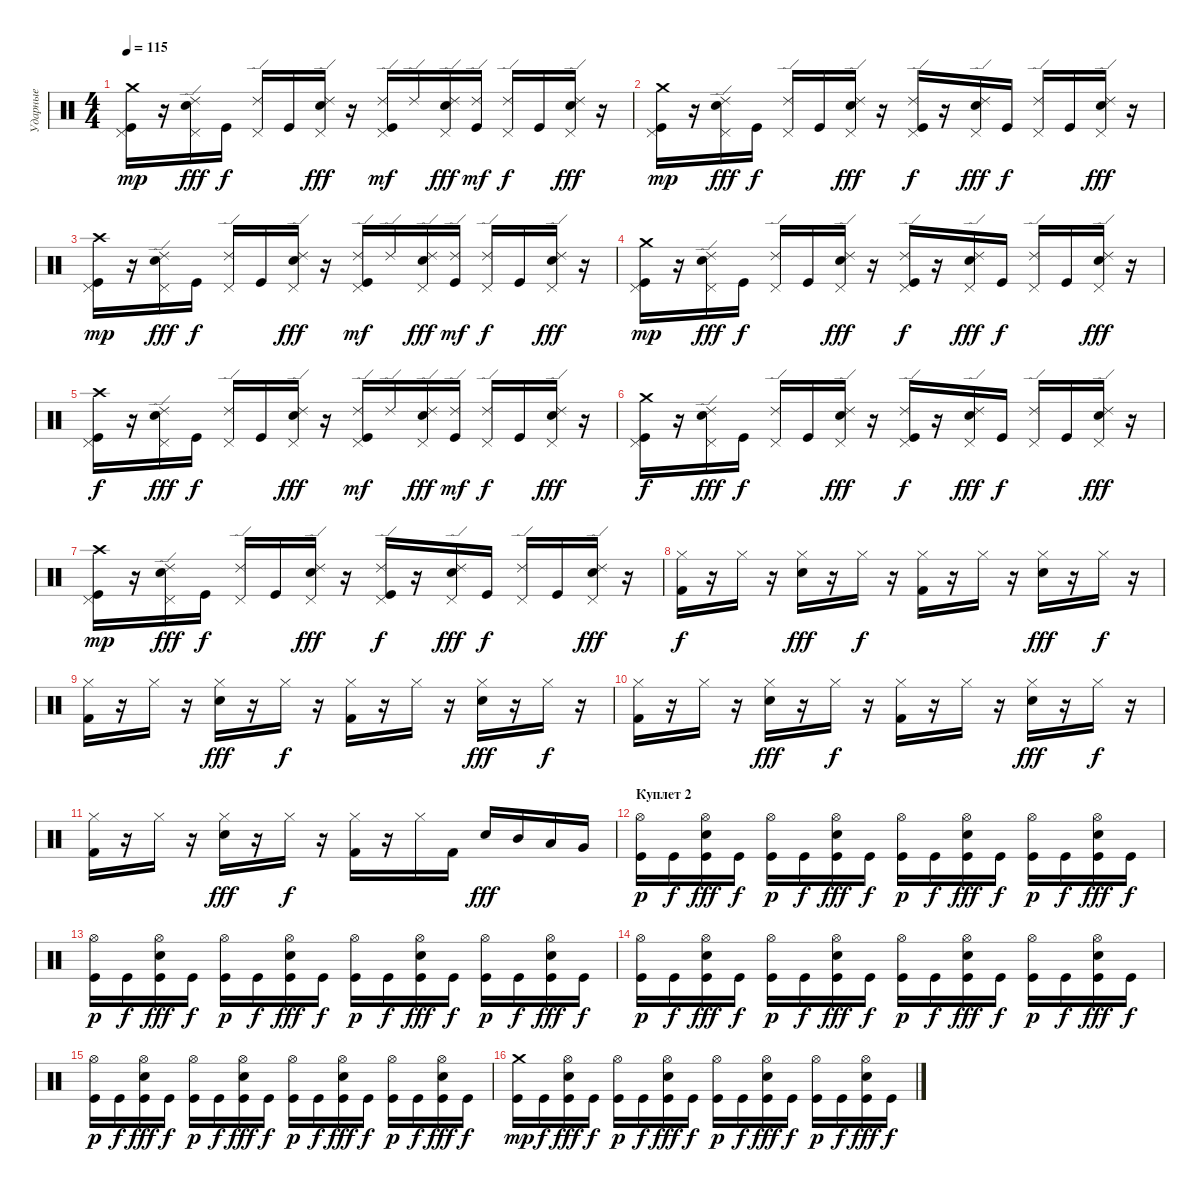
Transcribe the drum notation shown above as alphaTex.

\track ("Ударные" "Ударные") {instrument percussion}
\staff {score}
\articulation defaults
\ts (4 4)
\tempo 115
\clef neutral
\ks c
("Crash medium (hit)" "Pedal Hi-Hat (hit)" "Kick (hit)").16{dy mp} r.16 ("Ride (edge) 2" "Pedal Hi-Hat (hit)" "Electric Snare (hit)").16{dy fff} "Kick (hit)".16{dy f} ("Ride (edge) 2" "Pedal Hi-Hat (hit)").16 "Kick (hit)".16 ("Ride (edge) 2" "Pedal Hi-Hat (hit)" "Electric Snare (hit)").16{dy fff} r.16 ("Ride (edge) 2" "Pedal Hi-Hat (hit)" "Kick (hit)").16{dy mf} "Ride (edge) 2".16 ("Ride (edge) 2" "Pedal Hi-Hat (hit)" "Electric Snare (hit)").16{dy fff} ("Ride (edge) 2" "Kick (hit)").16{dy mf} ("Ride (edge) 2" "Pedal Hi-Hat (hit)").16{dy f} "Kick (hit)".16 ("Ride (edge) 2" "Pedal Hi-Hat (hit)" "Electric Snare (hit)").16{dy fff} r.16 |
("Crash medium (hit)" "Pedal Hi-Hat (hit)" "Kick (hit)").16{dy mp} r.16 ("Ride (edge) 2" "Pedal Hi-Hat (hit)" "Electric Snare (hit)").16{dy fff} "Kick (hit)".16{dy f} ("Ride (edge) 2" "Pedal Hi-Hat (hit)").16 "Kick (hit)".16 ("Ride (edge) 2" "Pedal Hi-Hat (hit)" "Electric Snare (hit)").16{dy fff} r.16 ("Ride (edge) 2" "Pedal Hi-Hat (hit)" "Kick (hit)").16{dy f} r.16 ("Ride (edge) 2" "Pedal Hi-Hat (hit)" "Electric Snare (hit)").16{dy fff} "Kick (hit)".16{dy f} ("Ride (edge) 2" "Pedal Hi-Hat (hit)").16 "Kick (hit)".16 ("Ride (edge) 2" "Pedal Hi-Hat (hit)" "Electric Snare (hit)").16{dy fff} r.16 |
("Crash high (hit)" "Pedal Hi-Hat (hit)" "Kick (hit)").16{dy mp} r.16 ("Ride (edge) 2" "Pedal Hi-Hat (hit)" "Electric Snare (hit)").16{dy fff} "Kick (hit)".16{dy f} ("Ride (edge) 2" "Pedal Hi-Hat (hit)").16 "Kick (hit)".16 ("Ride (edge) 2" "Pedal Hi-Hat (hit)" "Electric Snare (hit)").16{dy fff} r.16 ("Ride (edge) 2" "Pedal Hi-Hat (hit)" "Kick (hit)").16{dy mf} "Ride (edge) 2".16 ("Ride (edge) 2" "Pedal Hi-Hat (hit)" "Electric Snare (hit)").16{dy fff} ("Ride (edge) 2" "Kick (hit)").16{dy mf} ("Ride (edge) 2" "Pedal Hi-Hat (hit)").16{dy f} "Kick (hit)".16 ("Ride (edge) 2" "Pedal Hi-Hat (hit)" "Electric Snare (hit)").16{dy fff} r.16 |
("Crash medium (hit)" "Pedal Hi-Hat (hit)" "Kick (hit)").16{dy mp} r.16 ("Ride (edge) 2" "Pedal Hi-Hat (hit)" "Electric Snare (hit)").16{dy fff} "Kick (hit)".16{dy f} ("Ride (edge) 2" "Pedal Hi-Hat (hit)").16 "Kick (hit)".16 ("Ride (edge) 2" "Pedal Hi-Hat (hit)" "Electric Snare (hit)").16{dy fff} r.16 ("Ride (edge) 2" "Pedal Hi-Hat (hit)" "Kick (hit)").16{dy f} r.16 ("Ride (edge) 2" "Pedal Hi-Hat (hit)" "Electric Snare (hit)").16{dy fff} "Kick (hit)".16{dy f} ("Ride (edge) 2" "Pedal Hi-Hat (hit)").16 "Kick (hit)".16 ("Ride (edge) 2" "Pedal Hi-Hat (hit)" "Electric Snare (hit)").16{dy fff} r.16 |
("Crash high (hit)" "Pedal Hi-Hat (hit)" "Kick (hit)").16{dy f} r.16 ("Ride (edge) 2" "Pedal Hi-Hat (hit)" "Electric Snare (hit)").16{dy fff} "Kick (hit)".16{dy f} ("Ride (edge) 2" "Pedal Hi-Hat (hit)").16 "Kick (hit)".16 ("Ride (edge) 2" "Pedal Hi-Hat (hit)" "Electric Snare (hit)").16{dy fff} r.16 ("Ride (edge) 2" "Pedal Hi-Hat (hit)" "Kick (hit)").16{dy mf} "Ride (edge) 2".16 ("Ride (edge) 2" "Pedal Hi-Hat (hit)" "Electric Snare (hit)").16{dy fff} ("Ride (edge) 2" "Kick (hit)").16{dy mf} ("Ride (edge) 2" "Pedal Hi-Hat (hit)").16{dy f} "Kick (hit)".16 ("Ride (edge) 2" "Pedal Hi-Hat (hit)" "Electric Snare (hit)").16{dy fff} r.16 |
("Crash medium (hit)" "Pedal Hi-Hat (hit)" "Kick (hit)").16{dy f} r.16 ("Ride (edge) 2" "Pedal Hi-Hat (hit)" "Electric Snare (hit)").16{dy fff} "Kick (hit)".16{dy f} ("Ride (edge) 2" "Pedal Hi-Hat (hit)").16 "Kick (hit)".16 ("Ride (edge) 2" "Pedal Hi-Hat (hit)" "Electric Snare (hit)").16{dy fff} r.16 ("Ride (edge) 2" "Pedal Hi-Hat (hit)" "Kick (hit)").16{dy f} r.16 ("Ride (edge) 2" "Pedal Hi-Hat (hit)" "Electric Snare (hit)").16{dy fff} "Kick (hit)".16{dy f} ("Ride (edge) 2" "Pedal Hi-Hat (hit)").16 "Kick (hit)".16 ("Ride (edge) 2" "Pedal Hi-Hat (hit)" "Electric Snare (hit)").16{dy fff} r.16 |
("Crash high (hit)" "Pedal Hi-Hat (hit)" "Kick (hit)").16{dy mp} r.16 ("Ride (edge) 2" "Pedal Hi-Hat (hit)" "Electric Snare (hit)").16{dy fff} "Kick (hit)".16{dy f} ("Ride (edge) 2" "Pedal Hi-Hat (hit)").16 "Kick (hit)".16 ("Ride (edge) 2" "Pedal Hi-Hat (hit)" "Electric Snare (hit)").16{dy fff} r.16 ("Ride (edge) 2" "Pedal Hi-Hat (hit)" "Kick (hit)").16{dy f} r.16 ("Ride (edge) 2" "Pedal Hi-Hat (hit)" "Electric Snare (hit)").16{dy fff} "Kick (hit)".16{dy f} ("Ride (edge) 2" "Pedal Hi-Hat (hit)").16 "Kick (hit)".16 ("Ride (edge) 2" "Pedal Hi-Hat (hit)" "Electric Snare (hit)").16{dy fff} r.16 |
\section ("" "")
("Hi-Hat (closed)" "Kick (hit) 2").16{dy f} r.16 "Hi-Hat (closed)".16 r.16 ("Hi-Hat (closed)" "Electric Snare (hit)").16{dy fff} r.16 "Hi-Hat (closed)".16{dy f} r.16 ("Hi-Hat (closed)" "Kick (hit) 2").16 r.16 "Hi-Hat (closed)".16 r.16 ("Hi-Hat (closed)" "Electric Snare (hit)").16{dy fff} r.16 "Hi-Hat (closed)".16{dy f} r.16 |
("Hi-Hat (closed)" "Kick (hit) 2").16 r.16 "Hi-Hat (closed)".16 r.16 ("Hi-Hat (closed)" "Electric Snare (hit)").16{dy fff} r.16 "Hi-Hat (closed)".16{dy f} r.16 ("Hi-Hat (closed)" "Kick (hit) 2").16 r.16 "Hi-Hat (closed)".16 r.16 ("Hi-Hat (closed)" "Electric Snare (hit)").16{dy fff} r.16 "Hi-Hat (closed)".16{dy f} r.16 |
("Hi-Hat (closed)" "Kick (hit) 2").16 r.16 "Hi-Hat (closed)".16 r.16 ("Hi-Hat (closed)" "Electric Snare (hit)").16{dy fff} r.16 "Hi-Hat (closed)".16{dy f} r.16 ("Hi-Hat (closed)" "Kick (hit) 2").16 r.16 "Hi-Hat (closed)".16 r.16 ("Hi-Hat (closed)" "Electric Snare (hit)").16{dy fff} r.16 "Hi-Hat (closed)".16{dy f} r.16 |
("Hi-Hat (closed)" "Kick (hit) 2").16 r.16 "Hi-Hat (closed)".16 r.16 ("Hi-Hat (closed)" "Electric Snare (hit)").16{dy fff} r.16 "Hi-Hat (closed)".16{dy f} r.16 ("Hi-Hat (closed)" "Kick (hit) 2").16 r.16 "Hi-Hat (closed)".16 "Kick (hit) 2".16 "Electric Snare (hit)".16{dy fff} "Mid Tom (hit)".16 "Low Tom (hit)".16 "Very Low Tom (hit)".16 |
\section ("" "Куплет 2")
("Hi-Hat (open)" "Kick (hit)").16{dy p} "Kick (hit)".16{dy f} ("Hi-Hat (open)" "Electric Snare (hit)" "Kick (hit)").16{dy fff} "Kick (hit)".16{dy f} ("Hi-Hat (open)" "Kick (hit)").16{dy p} "Kick (hit)".16{dy f} ("Hi-Hat (open)" "Electric Snare (hit)" "Kick (hit)").16{dy fff} "Kick (hit)".16{dy f} ("Hi-Hat (open)" "Kick (hit)").16{dy p} "Kick (hit)".16{dy f} ("Hi-Hat (open)" "Electric Snare (hit)" "Kick (hit)").16{dy fff} "Kick (hit)".16{dy f} ("Hi-Hat (open)" "Kick (hit)").16{dy p} "Kick (hit)".16{dy f} ("Hi-Hat (open)" "Electric Snare (hit)" "Kick (hit)").16{dy fff} "Kick (hit)".16{dy f} |
("Hi-Hat (open)" "Kick (hit)").16{dy p} "Kick (hit)".16{dy f} ("Hi-Hat (open)" "Electric Snare (hit)" "Kick (hit)").16{dy fff} "Kick (hit)".16{dy f} ("Hi-Hat (open)" "Kick (hit)").16{dy p} "Kick (hit)".16{dy f} ("Hi-Hat (open)" "Electric Snare (hit)" "Kick (hit)").16{dy fff} "Kick (hit)".16{dy f} ("Hi-Hat (open)" "Kick (hit)").16{dy p} "Kick (hit)".16{dy f} ("Hi-Hat (open)" "Electric Snare (hit)" "Kick (hit)").16{dy fff} "Kick (hit)".16{dy f} ("Hi-Hat (open)" "Kick (hit)").16{dy p} "Kick (hit)".16{dy f} ("Hi-Hat (open)" "Electric Snare (hit)" "Kick (hit)").16{dy fff} "Kick (hit)".16{dy f} |
("Hi-Hat (open)" "Kick (hit)").16{dy p} "Kick (hit)".16{dy f} ("Hi-Hat (open)" "Electric Snare (hit)" "Kick (hit)").16{dy fff} "Kick (hit)".16{dy f} ("Hi-Hat (open)" "Kick (hit)").16{dy p} "Kick (hit)".16{dy f} ("Hi-Hat (open)" "Electric Snare (hit)" "Kick (hit)").16{dy fff} "Kick (hit)".16{dy f} ("Hi-Hat (open)" "Kick (hit)").16{dy p} "Kick (hit)".16{dy f} ("Hi-Hat (open)" "Electric Snare (hit)" "Kick (hit)").16{dy fff} "Kick (hit)".16{dy f} ("Hi-Hat (open)" "Kick (hit)").16{dy p} "Kick (hit)".16{dy f} ("Hi-Hat (open)" "Electric Snare (hit)" "Kick (hit)").16{dy fff} "Kick (hit)".16{dy f} |
("Hi-Hat (open)" "Kick (hit)").16{dy p} "Kick (hit)".16{dy f} ("Hi-Hat (open)" "Electric Snare (hit)" "Kick (hit)").16{dy fff} "Kick (hit)".16{dy f} ("Hi-Hat (open)" "Kick (hit)").16{dy p} "Kick (hit)".16{dy f} ("Hi-Hat (open)" "Electric Snare (hit)" "Kick (hit)").16{dy fff} "Kick (hit)".16{dy f} ("Hi-Hat (open)" "Kick (hit)").16{dy p} "Kick (hit)".16{dy f} ("Hi-Hat (open)" "Electric Snare (hit)" "Kick (hit)").16{dy fff} "Kick (hit)".16{dy f} ("Hi-Hat (open)" "Kick (hit)").16{dy p} "Kick (hit)".16{dy f} ("Hi-Hat (open)" "Electric Snare (hit)" "Kick (hit)").16{dy fff} "Kick (hit)".16{dy f} |
("Crash medium (hit)" "Kick (hit)").16{dy mp} "Kick (hit)".16{dy f} ("Hi-Hat (open)" "Electric Snare (hit)" "Kick (hit)").16{dy fff} "Kick (hit)".16{dy f} ("Hi-Hat (open)" "Kick (hit)").16{dy p} "Kick (hit)".16{dy f} ("Hi-Hat (open)" "Electric Snare (hit)" "Kick (hit)").16{dy fff} "Kick (hit)".16{dy f} ("Hi-Hat (open)" "Kick (hit)").16{dy p} "Kick (hit)".16{dy f} ("Hi-Hat (open)" "Electric Snare (hit)" "Kick (hit)").16{dy fff} "Kick (hit)".16{dy f} ("Hi-Hat (open)" "Kick (hit)").16{dy p} "Kick (hit)".16{dy f} ("Hi-Hat (open)" "Electric Snare (hit)" "Kick (hit)").16{dy fff} "Kick (hit)".16{dy f}
